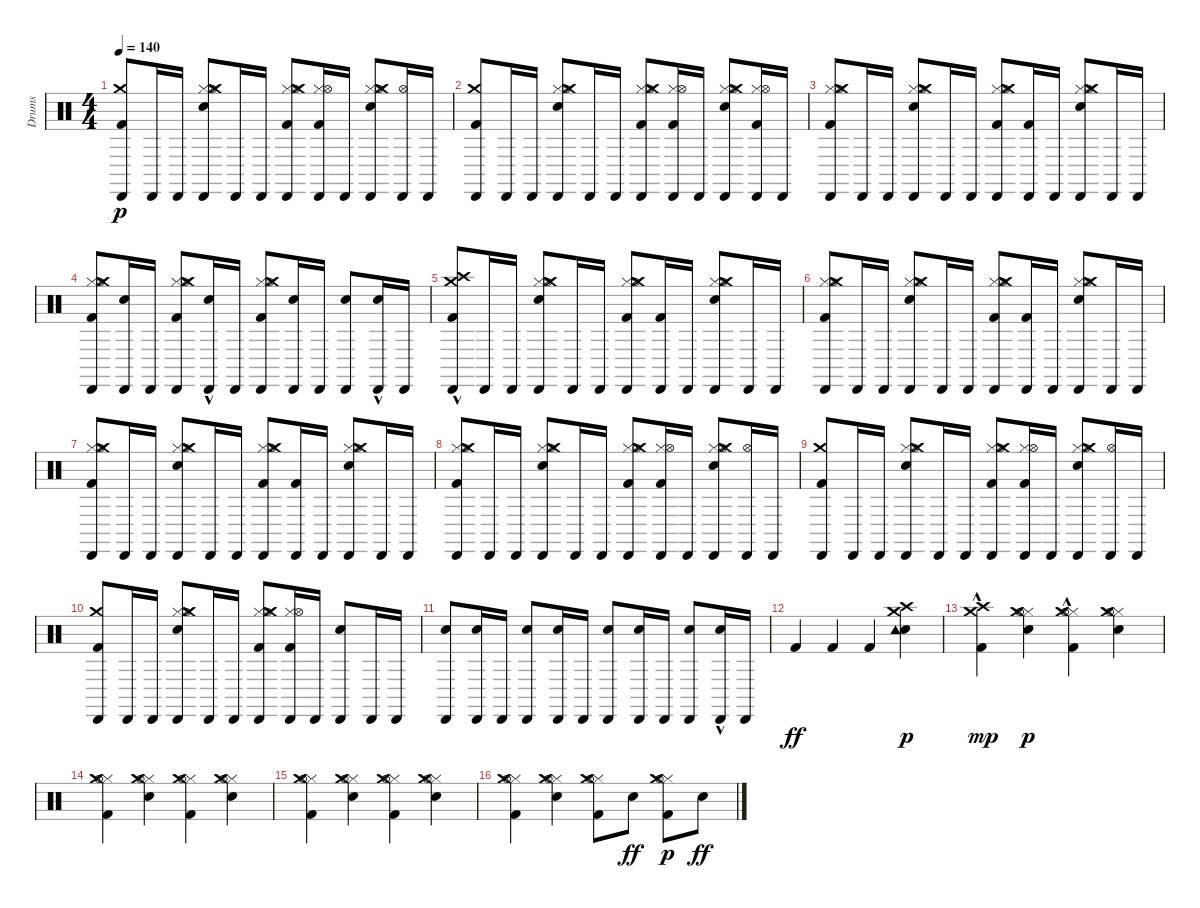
\track ("Drums" "Drums") {instrument percussion}
\staff {score}
\articulation defaults
\ts (4 4)
\tempo 140
\clef neutral
\ks c
("Kick (hit) 2" "Crash medium (hit)" "Cabasa (hit)").8{dy p} "Cabasa (hit)".16 "Cabasa (hit)".16 ("Snare (hit) 2" "Hi-Hat (closed)" "Hi-Hat (open)" "Crash medium (hit)" "Cabasa (hit)").8 "Cabasa (hit)".16 "Cabasa (hit)".16 ("Kick (hit) 2" "Hi-Hat (closed)" "Hi-Hat (open)" "Crash medium (hit)" "Cabasa (hit)").8 ("Kick (hit) 2" "Hi-Hat (closed)" "Hi-Hat (open)" "Cabasa (hit)").16 "Cabasa (hit)".16 ("Snare (hit) 2" "Hi-Hat (closed)" "Hi-Hat (open)" "Crash medium (hit)" "Cabasa (hit)").8 ("Hi-Hat (open)" "Cabasa (hit)").16 "Cabasa (hit)".16 |
("Kick (hit) 2" "Crash medium (hit)" "Cabasa (hit)").8 "Cabasa (hit)".16 "Cabasa (hit)".16 ("Snare (hit) 2" "Hi-Hat (closed)" "Hi-Hat (open)" "Crash medium (hit)" "Cabasa (hit)").8 "Cabasa (hit)".16 "Cabasa (hit)".16 ("Kick (hit) 2" "Hi-Hat (closed)" "Hi-Hat (open)" "Crash medium (hit)" "Cabasa (hit)").8 ("Kick (hit) 2" "Hi-Hat (closed)" "Hi-Hat (open)" "Cabasa (hit)").16 "Cabasa (hit)".16 ("Snare (hit) 2" "Hi-Hat (closed)" "Hi-Hat (open)" "Crash medium (hit)" "Cabasa (hit)").8 ("Hi-Hat (closed)" "Kick (hit) 2" "Hi-Hat (open)" "Cabasa (hit)").16 "Cabasa (hit)".16 |
("Kick (hit) 2" "Hi-Hat (closed)" "Hi-Hat (open)" "Crash medium (hit)" "Cabasa (hit)").8 "Cabasa (hit)".16 "Cabasa (hit)".16 ("Snare (hit) 2" "Hi-Hat (closed)" "Hi-Hat (open)" "Crash medium (hit)" "Cabasa (hit)").8 "Cabasa (hit)".16 "Cabasa (hit)".16 ("Kick (hit) 2" "Hi-Hat (closed)" "Hi-Hat (open)" "Crash medium (hit)" "Cabasa (hit)").8 ("Kick (hit) 2" "Cabasa (hit)").16 "Cabasa (hit)".16 ("Snare (hit) 2" "Hi-Hat (closed)" "Hi-Hat (open)" "Crash medium (hit)" "Cabasa (hit)").8 "Cabasa (hit)".16 "Cabasa (hit)".16 |
("Kick (hit) 2" "Hi-Hat (closed)" "Hi-Hat (open)" "Crash medium (hit)" "Cabasa (hit)").8 ("Snare (hit) 2" "Cabasa (hit)").16 "Cabasa (hit)".16 ("Hi-Hat (closed)" "Hi-Hat (open)" "Kick (hit) 2" "Crash medium (hit)" "Cabasa (hit)").8 ("Snare (hit) 2"{hac} "Cabasa (hit)").16 "Cabasa (hit)".16 ("Kick (hit) 2" "Hi-Hat (closed)" "Hi-Hat (open)" "Crash medium (hit)" "Cabasa (hit)").8 ("Snare (hit) 2" "Cabasa (hit)").16 "Cabasa (hit)".16 ("Snare (hit) 2" "Cabasa (hit)").8 ("Snare (hit) 2"{hac} "Cabasa (hit)").16 "Cabasa (hit)".16 |
("Kick (hit) 2"{hac} "Crash high (hit)" "Crash medium (hit)" "Cabasa (hit)").8 "Cabasa (hit)".16 "Cabasa (hit)".16 ("Snare (hit) 2" "Hi-Hat (closed)" "Hi-Hat (open)" "Crash medium (hit)" "Cabasa (hit)").8 "Cabasa (hit)".16 "Cabasa (hit)".16 ("Kick (hit) 2" "Hi-Hat (closed)" "Hi-Hat (open)" "Crash medium (hit)" "Cabasa (hit)").8 ("Kick (hit) 2" "Cabasa (hit)").16 "Cabasa (hit)".16 ("Snare (hit) 2" "Hi-Hat (closed)" "Hi-Hat (open)" "Crash medium (hit)" "Cabasa (hit)").8 "Cabasa (hit)".16 "Cabasa (hit)".16 |
("Kick (hit) 2" "Hi-Hat (closed)" "Hi-Hat (open)" "Crash medium (hit)" "Cabasa (hit)").8 "Cabasa (hit)".16 "Cabasa (hit)".16 ("Snare (hit) 2" "Hi-Hat (closed)" "Hi-Hat (open)" "Crash medium (hit)" "Cabasa (hit)").8 "Cabasa (hit)".16 "Cabasa (hit)".16 ("Kick (hit) 2" "Hi-Hat (closed)" "Hi-Hat (open)" "Crash medium (hit)" "Cabasa (hit)").8 ("Kick (hit) 2" "Cabasa (hit)").16 "Cabasa (hit)".16 ("Snare (hit) 2" "Hi-Hat (closed)" "Hi-Hat (open)" "Crash medium (hit)" "Cabasa (hit)").8 "Cabasa (hit)".16 "Cabasa (hit)".16 |
("Kick (hit) 2" "Hi-Hat (closed)" "Hi-Hat (open)" "Crash medium (hit)" "Cabasa (hit)").8 "Cabasa (hit)".16 "Cabasa (hit)".16 ("Snare (hit) 2" "Hi-Hat (closed)" "Hi-Hat (open)" "Crash medium (hit)" "Cabasa (hit)").8 "Cabasa (hit)".16 "Cabasa (hit)".16 ("Kick (hit) 2" "Hi-Hat (closed)" "Hi-Hat (open)" "Crash medium (hit)" "Cabasa (hit)").8 ("Kick (hit) 2" "Cabasa (hit)").16 "Cabasa (hit)".16 ("Snare (hit) 2" "Hi-Hat (closed)" "Hi-Hat (open)" "Crash medium (hit)" "Cabasa (hit)").8 "Cabasa (hit)".16 "Cabasa (hit)".16 |
("Kick (hit) 2" "Hi-Hat (closed)" "Hi-Hat (open)" "Crash medium (hit)" "Cabasa (hit)").8 "Cabasa (hit)".16 "Cabasa (hit)".16 ("Snare (hit) 2" "Hi-Hat (closed)" "Hi-Hat (open)" "Crash medium (hit)" "Cabasa (hit)").8 "Cabasa (hit)".16 "Cabasa (hit)".16 ("Kick (hit) 2" "Hi-Hat (closed)" "Hi-Hat (open)" "Crash medium (hit)" "Cabasa (hit)").8 ("Kick (hit) 2" "Hi-Hat (closed)" "Hi-Hat (open)" "Cabasa (hit)").16 "Cabasa (hit)".16 ("Snare (hit) 2" "Hi-Hat (closed)" "Hi-Hat (open)" "Crash medium (hit)" "Cabasa (hit)").8 ("Hi-Hat (open)" "Cabasa (hit)").16 "Cabasa (hit)".16 |
("Kick (hit) 2" "Crash medium (hit)" "Cabasa (hit)").8 "Cabasa (hit)".16 "Cabasa (hit)".16 ("Snare (hit) 2" "Hi-Hat (closed)" "Hi-Hat (open)" "Crash medium (hit)" "Cabasa (hit)").8 "Cabasa (hit)".16 "Cabasa (hit)".16 ("Kick (hit) 2" "Hi-Hat (closed)" "Hi-Hat (open)" "Crash medium (hit)" "Cabasa (hit)").8 ("Kick (hit) 2" "Hi-Hat (closed)" "Hi-Hat (open)" "Cabasa (hit)").16 "Cabasa (hit)".16 ("Snare (hit) 2" "Hi-Hat (closed)" "Hi-Hat (open)" "Crash medium (hit)" "Cabasa (hit)").8 ("Hi-Hat (open)" "Cabasa (hit)").16 "Cabasa (hit)".16 |
("Kick (hit) 2" "Crash medium (hit)" "Cabasa (hit)").8 "Cabasa (hit)".16 "Cabasa (hit)".16 ("Snare (hit) 2" "Hi-Hat (closed)" "Hi-Hat (open)" "Crash medium (hit)" "Cabasa (hit)").8 "Cabasa (hit)".16 "Cabasa (hit)".16 ("Kick (hit) 2" "Hi-Hat (closed)" "Hi-Hat (open)" "Crash medium (hit)" "Cabasa (hit)").8 ("Kick (hit) 2" "Hi-Hat (closed)" "Hi-Hat (open)" "Cabasa (hit)").16 "Cabasa (hit)".16 ("Snare (hit) 2" "Cabasa (hit)").8 "Cabasa (hit)".16 "Cabasa (hit)".16 |
("Snare (hit) 2" "Cabasa (hit)").8 ("Snare (hit) 2" "Cabasa (hit)").16 "Cabasa (hit)".16 ("Snare (hit) 2" "Cabasa (hit)").8 ("Snare (hit) 2" "Cabasa (hit)").16 "Cabasa (hit)".16 ("Snare (hit) 2" "Cabasa (hit)").8 ("Snare (hit) 2" "Cabasa (hit)").16 "Cabasa (hit)".16 ("Snare (hit) 2" "Cabasa (hit)").8 ("Snare (hit) 2"{hac} "Cabasa (hit)").16 "Cabasa (hit)".16 |
"Kick (hit) 2".4{dy ff} "Kick (hit) 2".4 "Kick (hit) 2".4 ("Snare (hit) 2" "Crash high (hit)" "Tambourine (hit)" "Crash medium (hit)").4{dy p} |
("Kick (hit) 2" "Crash high (hit)"{hac} "Crash medium (hit)").4{dy mp} ("Snare (hit) 2" "Hi-Hat (closed)" "Hi-Hat (open)" "Crash medium (hit)").4{dy p} ("Kick (hit) 2"{hac} "Hi-Hat (closed)" "Hi-Hat (open)" "Crash medium (hit)").4 ("Snare (hit) 2" "Hi-Hat (closed)" "Hi-Hat (open)" "Crash medium (hit)").4 |
("Kick (hit) 2" "Hi-Hat (closed)" "Hi-Hat (open)" "Crash medium (hit)").4 ("Snare (hit) 2" "Hi-Hat (closed)" "Hi-Hat (open)" "Crash medium (hit)").4 ("Kick (hit) 2" "Hi-Hat (closed)" "Hi-Hat (open)" "Crash medium (hit)").4 ("Snare (hit) 2" "Hi-Hat (closed)" "Hi-Hat (open)" "Crash medium (hit)").4 |
("Kick (hit) 2" "Hi-Hat (closed)" "Hi-Hat (open)" "Crash medium (hit)").4 ("Snare (hit) 2" "Hi-Hat (closed)" "Hi-Hat (open)" "Crash medium (hit)").4 ("Kick (hit) 2" "Hi-Hat (closed)" "Hi-Hat (open)" "Crash medium (hit)").4 ("Snare (hit) 2" "Hi-Hat (closed)" "Hi-Hat (open)" "Crash medium (hit)").4 |
("Kick (hit) 2" "Hi-Hat (closed)" "Hi-Hat (open)" "Crash medium (hit)").4 ("Snare (hit) 2" "Hi-Hat (closed)" "Hi-Hat (open)" "Crash medium (hit)").4 ("Kick (hit) 2" "Hi-Hat (closed)" "Hi-Hat (open)" "Crash medium (hit)").8 "Snare (hit) 2".8{dy ff} ("Kick (hit) 2" "Hi-Hat (closed)" "Hi-Hat (open)" "Crash medium (hit)").8{dy p} "Snare (hit) 2".8{dy ff}
